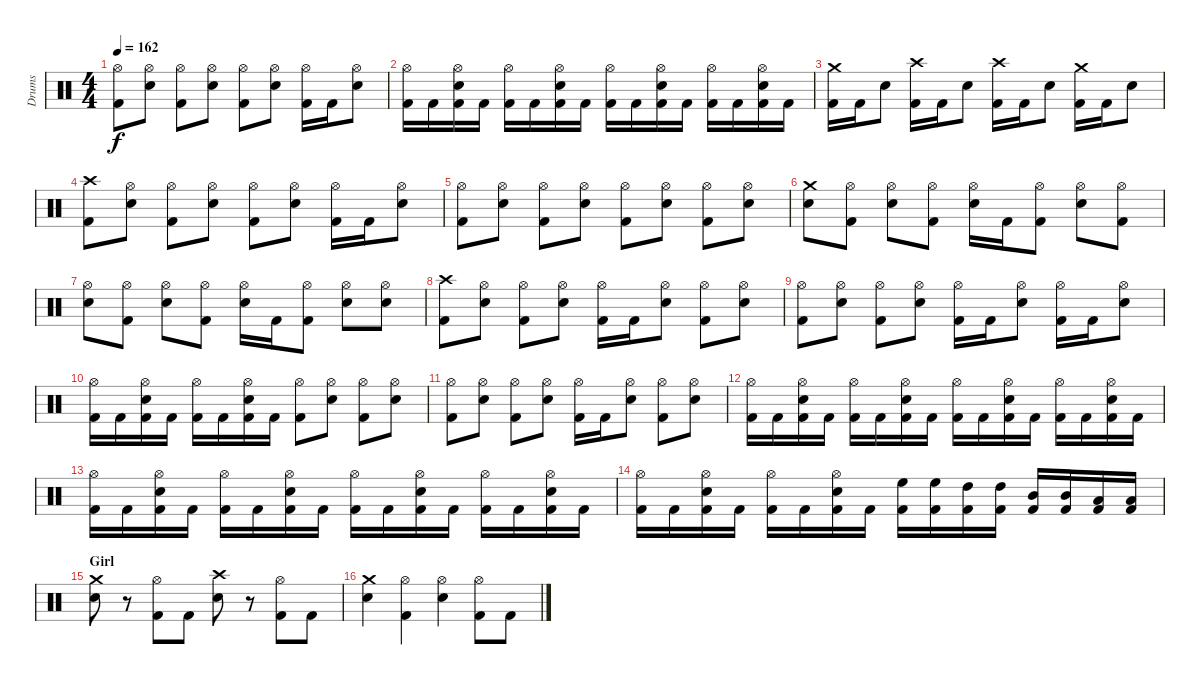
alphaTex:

\track ("Drums" "Drums") {instrument percussion}
\staff {score}
\articulation defaults
\ts (4 4)
\tempo 162
\clef neutral
\ks c
("Kick (hit) 2" "Hi-Hat (open)").8{dy f} ("Snare (hit) 2" "Hi-Hat (open)").8 ("Kick (hit) 2" "Hi-Hat (open)").8 ("Snare (hit) 2" "Hi-Hat (open)").8 ("Kick (hit) 2" "Hi-Hat (open)").8 ("Snare (hit) 2" "Hi-Hat (open)").8 ("Kick (hit) 2" "Hi-Hat (open)").16 "Kick (hit) 2".16 ("Snare (hit) 2" "Hi-Hat (open)").8 |
("Kick (hit) 2" "Hi-Hat (open)").16 "Kick (hit) 2".16 ("Kick (hit) 2" "Snare (hit) 2" "Hi-Hat (open)").16 "Kick (hit) 2".16 ("Kick (hit) 2" "Hi-Hat (open)").16 "Kick (hit) 2".16 ("Kick (hit) 2" "Snare (hit) 2" "Hi-Hat (open)").16 "Kick (hit) 2".16 ("Kick (hit) 2" "Hi-Hat (open)").16 "Kick (hit) 2".16 ("Kick (hit) 2" "Snare (hit) 2" "Hi-Hat (open)").16 "Kick (hit) 2".16 ("Kick (hit) 2" "Hi-Hat (open)").16 "Kick (hit) 2".16 ("Kick (hit) 2" "Snare (hit) 2" "Hi-Hat (open)").16 "Kick (hit) 2".16 |
("Kick (hit) 2" "Crash medium (hit)").16 "Kick (hit) 2".16 "Snare (hit) 2".8 ("Kick (hit) 2" "Crash high (hit)").16 "Kick (hit) 2".16 "Snare (hit) 2".8 ("Kick (hit) 2" "Crash high (hit)").16 "Kick (hit) 2".16 "Snare (hit) 2".8 ("Kick (hit) 2" "Crash medium (hit)").16 "Kick (hit) 2".16 "Snare (hit) 2".8 |
("Kick (hit) 2" "Crash high (hit)").8 ("Snare (hit) 2" "Hi-Hat (open)").8 ("Kick (hit) 2" "Hi-Hat (open)").8 ("Snare (hit) 2" "Hi-Hat (open)").8 ("Kick (hit) 2" "Hi-Hat (open)").8 ("Snare (hit) 2" "Hi-Hat (open)").8 ("Kick (hit) 2" "Hi-Hat (open)").16 "Kick (hit) 2".16 ("Snare (hit) 2" "Hi-Hat (open)").8 |
("Kick (hit) 2" "Hi-Hat (open)").8 ("Snare (hit) 2" "Hi-Hat (open)").8 ("Kick (hit) 2" "Hi-Hat (open)").8 ("Snare (hit) 2" "Hi-Hat (open)").8 ("Kick (hit) 2" "Hi-Hat (open)").8 ("Snare (hit) 2" "Hi-Hat (open)").8 ("Kick (hit) 2" "Hi-Hat (open)").8 ("Snare (hit) 2" "Hi-Hat (open)").8 |
("Snare (hit) 2" "Crash medium (hit)").8 ("Kick (hit) 2" "Hi-Hat (open)").8 ("Snare (hit) 2" "Hi-Hat (open)").8 ("Kick (hit) 2" "Hi-Hat (open)").8 ("Snare (hit) 2" "Hi-Hat (open)").16 "Kick (hit) 2".16 ("Kick (hit) 2" "Hi-Hat (open)").8 ("Snare (hit) 2" "Hi-Hat (open)").8 ("Kick (hit) 2" "Hi-Hat (open)").8 |
("Snare (hit) 2" "Hi-Hat (open)").8 ("Kick (hit) 2" "Hi-Hat (open)").8 ("Snare (hit) 2" "Hi-Hat (open)").8 ("Kick (hit) 2" "Hi-Hat (open)").8 ("Snare (hit) 2" "Hi-Hat (open)").16 "Kick (hit) 2".16 ("Kick (hit) 2" "Hi-Hat (open)").8 ("Snare (hit) 2" "Hi-Hat (open)").8 ("Snare (hit) 2" "Hi-Hat (open)").8 |
("Kick (hit) 2" "Crash high (hit)").8 ("Snare (hit) 2" "Hi-Hat (open)").8 ("Kick (hit) 2" "Hi-Hat (open)").8 ("Snare (hit) 2" "Hi-Hat (open)").8 ("Kick (hit) 2" "Hi-Hat (open)").16 "Kick (hit) 2".16 ("Snare (hit) 2" "Hi-Hat (open)").8 ("Kick (hit) 2" "Hi-Hat (open)").8 ("Snare (hit) 2" "Hi-Hat (open)").8 |
("Kick (hit) 2" "Hi-Hat (open)").8 ("Snare (hit) 2" "Hi-Hat (open)").8 ("Kick (hit) 2" "Hi-Hat (open)").8 ("Snare (hit) 2" "Hi-Hat (open)").8 ("Kick (hit) 2" "Hi-Hat (open)").16 "Kick (hit) 2".16 ("Snare (hit) 2" "Hi-Hat (open)").8 ("Kick (hit) 2" "Hi-Hat (open)").16 "Kick (hit) 2".16 ("Snare (hit) 2" "Hi-Hat (open)").8 |
("Kick (hit) 2" "Hi-Hat (open)").16 "Kick (hit) 2".16 ("Kick (hit) 2" "Snare (hit) 2" "Hi-Hat (open)").16 "Kick (hit) 2".16 ("Kick (hit) 2" "Hi-Hat (open)").16 "Kick (hit) 2".16 ("Kick (hit) 2" "Snare (hit) 2" "Hi-Hat (open)").16 "Kick (hit) 2".16 ("Kick (hit) 2" "Hi-Hat (open)").8 ("Snare (hit) 2" "Hi-Hat (open)").8 ("Kick (hit) 2" "Hi-Hat (open)").8 ("Snare (hit) 2" "Hi-Hat (open)").8 |
("Kick (hit) 2" "Hi-Hat (open)").8 ("Snare (hit) 2" "Hi-Hat (open)").8 ("Kick (hit) 2" "Hi-Hat (open)").8 ("Snare (hit) 2" "Hi-Hat (open)").8 ("Kick (hit) 2" "Hi-Hat (open)").16 "Kick (hit) 2".16 ("Snare (hit) 2" "Hi-Hat (open)").8 ("Kick (hit) 2" "Hi-Hat (open)").8 ("Snare (hit) 2" "Hi-Hat (open)").8 |
("Kick (hit) 2" "Hi-Hat (open)").16 "Kick (hit) 2".16 ("Kick (hit) 2" "Snare (hit) 2" "Hi-Hat (open)").16 "Kick (hit) 2".16 ("Kick (hit) 2" "Hi-Hat (open)").16 "Kick (hit) 2".16 ("Kick (hit) 2" "Snare (hit) 2" "Hi-Hat (open)").16 "Kick (hit) 2".16 ("Kick (hit) 2" "Hi-Hat (open)").16 "Kick (hit) 2".16 ("Kick (hit) 2" "Snare (hit) 2" "Hi-Hat (open)").16 "Kick (hit) 2".16 ("Kick (hit) 2" "Hi-Hat (open)").16 "Kick (hit) 2".16 ("Kick (hit) 2" "Snare (hit) 2" "Hi-Hat (open)").16 "Kick (hit) 2".16 |
("Kick (hit) 2" "Hi-Hat (open)").16 "Kick (hit) 2".16 ("Kick (hit) 2" "Snare (hit) 2" "Hi-Hat (open)").16 "Kick (hit) 2".16 ("Kick (hit) 2" "Hi-Hat (open)").16 "Kick (hit) 2".16 ("Kick (hit) 2" "Snare (hit) 2" "Hi-Hat (open)").16 "Kick (hit) 2".16 ("Kick (hit) 2" "Hi-Hat (open)").16 "Kick (hit) 2".16 ("Kick (hit) 2" "Snare (hit) 2" "Hi-Hat (open)").16 "Kick (hit) 2".16 ("Kick (hit) 2" "Hi-Hat (open)").16 "Kick (hit) 2".16 ("Kick (hit) 2" "Snare (hit) 2" "Hi-Hat (open)").16 "Kick (hit) 2".16 |
("Kick (hit) 2" "Hi-Hat (open)").16 "Kick (hit) 2".16 ("Kick (hit) 2" "Snare (hit) 2" "Hi-Hat (open)").16 "Kick (hit) 2".16 ("Kick (hit) 2" "Hi-Hat (open)").16 "Kick (hit) 2".16 ("Kick (hit) 2" "Snare (hit) 2" "Hi-Hat (open)").16 "Kick (hit) 2".16 ("Kick (hit) 2" "High Floor Tom (hit)").16 ("Kick (hit) 2" "High Floor Tom (hit)").16 ("Kick (hit) 2" "High Tom (hit)").16 ("Kick (hit) 2" "High Tom (hit)").16 ("Kick (hit) 2" "Mid Tom (hit)").16 ("Kick (hit) 2" "Mid Tom (hit)").16 ("Kick (hit) 2" "Low Tom (hit)").16 ("Kick (hit) 2" "Low Tom (hit)").16 |
\section ("" "Girl")
("Snare (hit) 2" "Crash medium (hit)").8 r.8 ("Kick (hit) 2" "Hi-Hat (open)").8 "Kick (hit) 2".8 ("Snare (hit) 2" "Crash high (hit)").8 r.8 ("Kick (hit) 2" "Hi-Hat (open)").8 "Kick (hit) 2".8 |
("Snare (hit) 2" "Crash medium (hit)").4 ("Kick (hit) 2" "Hi-Hat (open)").4 ("Snare (hit) 2" "Hi-Hat (open)").4 ("Kick (hit) 2" "Hi-Hat (open)").8 "Kick (hit) 2".8
